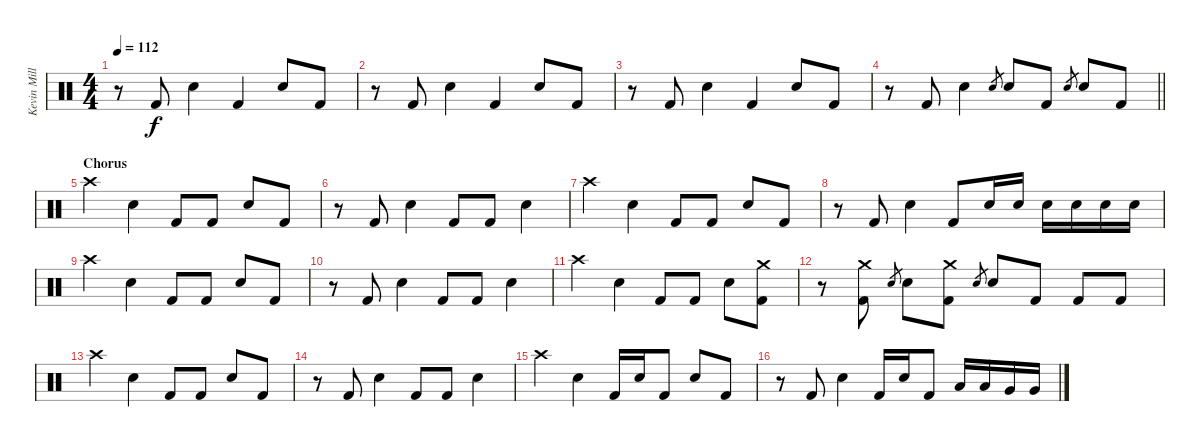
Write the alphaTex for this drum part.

\track ("Kevin Miller (Drums)" "Kevin Mill") {instrument percussion}
\staff {score}
\articulation defaults
\ts (4 4)
\tempo 112
\clef neutral
\ks c
r.8{dy f} "Kick (hit) 2".8 "Electric Snare (hit)".4 "Kick (hit) 2".4 "Electric Snare (hit)".8 "Kick (hit) 2".8 |
r.8 "Kick (hit) 2".8 "Electric Snare (hit)".4 "Kick (hit) 2".4 "Electric Snare (hit)".8 "Kick (hit) 2".8 |
r.8 "Kick (hit) 2".8 "Electric Snare (hit)".4 "Kick (hit) 2".4 "Electric Snare (hit)".8 "Kick (hit) 2".8 |
\barLineRight lightlight
r.8 "Kick (hit) 2".8 "Electric Snare (hit)".4 "Electric Snare (hit)".8{gr} "Electric Snare (hit)".8 "Kick (hit) 2".8 "Electric Snare (hit)".8{gr} "Electric Snare (hit)".8 "Kick (hit) 2".8 |
\section ("" "Chorus")
"Crash high (hit)".4 "Electric Snare (hit)".4 "Kick (hit) 2".8 "Kick (hit) 2".8 "Electric Snare (hit)".8 "Kick (hit) 2".8 |
r.8 "Kick (hit) 2".8 "Electric Snare (hit)".4 "Kick (hit) 2".8 "Kick (hit) 2".8 "Electric Snare (hit)".4 |
"Crash high (hit)".4 "Electric Snare (hit)".4 "Kick (hit) 2".8 "Kick (hit) 2".8 "Electric Snare (hit)".8 "Kick (hit) 2".8 |
r.8 "Kick (hit) 2".8 "Electric Snare (hit)".4 "Kick (hit) 2".8 "Electric Snare (hit)".16 "Electric Snare (hit)".16 "Electric Snare (hit)".16 "Electric Snare (hit)".16 "Electric Snare (hit)".16 "Electric Snare (hit)".16 |
"Crash high (hit)".4 "Electric Snare (hit)".4 "Kick (hit) 2".8 "Kick (hit) 2".8 "Electric Snare (hit)".8 "Kick (hit) 2".8 |
r.8 "Kick (hit) 2".8 "Electric Snare (hit)".4 "Kick (hit) 2".8 "Kick (hit) 2".8 "Electric Snare (hit)".4 |
"Crash high (hit)".4 "Electric Snare (hit)".4 "Kick (hit) 2".8 "Kick (hit) 2".8 "Electric Snare (hit)".8 ("Crash medium (hit)" "Kick (hit) 2").8 |
r.8 ("Kick (hit) 2" "Crash medium (hit)").8 "Electric Snare (hit)".8{gr} "Electric Snare (hit)".8 ("Kick (hit) 2" "Crash medium (hit)").8 "Electric Snare (hit)".8{gr} "Electric Snare (hit)".8 "Kick (hit) 2".8 "Kick (hit) 2".8 "Kick (hit) 2".8 |
"Crash high (hit)".4 "Electric Snare (hit)".4 "Kick (hit) 2".8 "Kick (hit) 2".8 "Electric Snare (hit)".8 "Kick (hit) 2".8 |
r.8 "Kick (hit) 2".8 "Electric Snare (hit)".4 "Kick (hit) 2".8 "Kick (hit) 2".8 "Electric Snare (hit)".4 |
"Crash high (hit)".4 "Electric Snare (hit)".4 "Kick (hit) 2".16 "Electric Snare (hit)".16 "Kick (hit) 2".8 "Electric Snare (hit)".8 "Kick (hit) 2".8 |
r.8 "Kick (hit) 2".8 "Electric Snare (hit)".4 "Kick (hit) 2".16 "Electric Snare (hit)".16 "Kick (hit) 2".8 "Low Tom (hit)".16 "Low Tom (hit)".16 "Very Low Tom (hit)".16 "Very Low Tom (hit)".16
